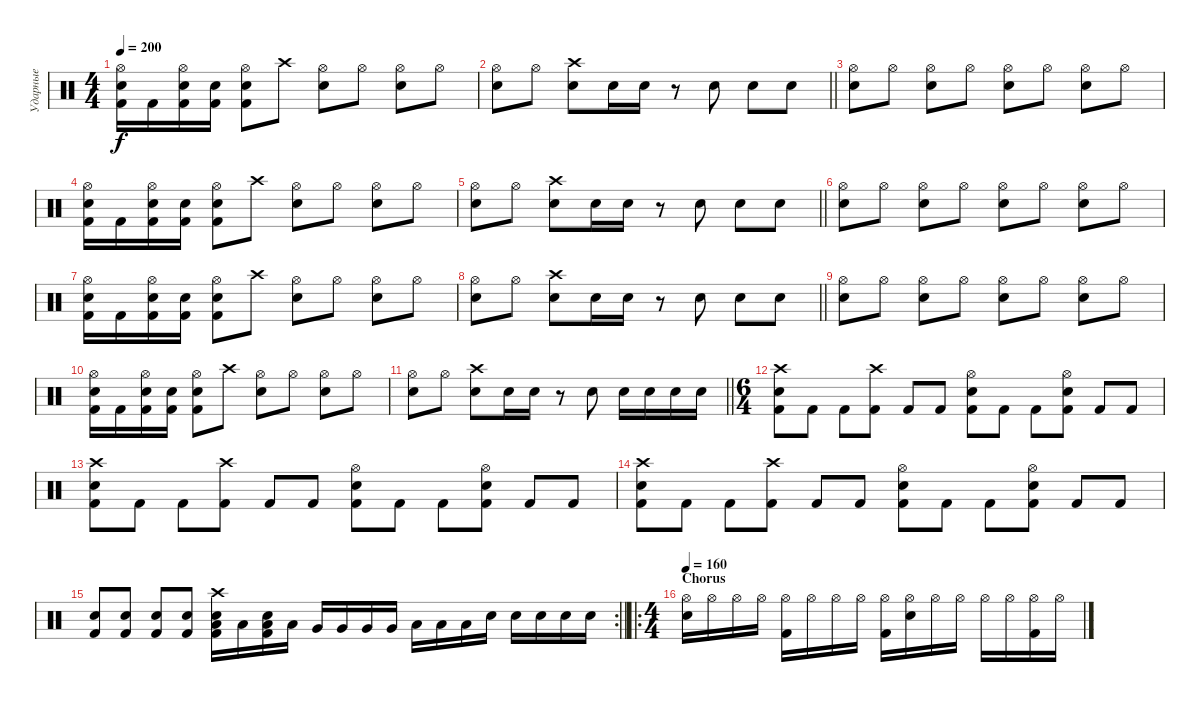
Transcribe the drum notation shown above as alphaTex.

\track ("Ударные" "Ударные") {instrument percussion}
\staff {score}
\articulation defaults
\ts (4 4)
\tempo 200
\clef neutral
\ks c
("Hi-Hat (open)" "Snare (hit) 2" "Kick (hit) 2").16{dy f} "Kick (hit) 2".16 ("Hi-Hat (open)" "Snare (hit) 2" "Kick (hit) 2").16 ("Snare (hit) 2" "Kick (hit) 2").16 ("Hi-Hat (open)" "Snare (hit) 2" "Kick (hit) 2").8 "Crash high (hit)".8 ("Hi-Hat (open)" "Snare (hit) 2").8 "Hi-Hat (open)".8 ("Hi-Hat (open)" "Snare (hit) 2").8 "Hi-Hat (open)".8 |
\barLineRight lightlight
("Hi-Hat (open)" "Snare (hit) 2").8 "Hi-Hat (open)".8 ("Crash high (hit)" "Snare (hit) 2").8 "Snare (hit) 2".16 "Snare (hit) 2".16 r.8 "Snare (hit) 2".8 "Snare (hit) 2".8 "Snare (hit) 2".8 |
("Hi-Hat (open)" "Snare (hit) 2").8 "Hi-Hat (open)".8 ("Hi-Hat (open)" "Snare (hit) 2").8 "Hi-Hat (open)".8 ("Hi-Hat (open)" "Snare (hit) 2").8 "Hi-Hat (open)".8 ("Hi-Hat (open)" "Snare (hit) 2").8 "Hi-Hat (open)".8 |
("Hi-Hat (open)" "Snare (hit) 2" "Kick (hit) 2").16 "Kick (hit) 2".16 ("Hi-Hat (open)" "Snare (hit) 2" "Kick (hit) 2").16 ("Snare (hit) 2" "Kick (hit) 2").16 ("Hi-Hat (open)" "Snare (hit) 2" "Kick (hit) 2").8 "Crash high (hit)".8 ("Hi-Hat (open)" "Snare (hit) 2").8 "Hi-Hat (open)".8 ("Hi-Hat (open)" "Snare (hit) 2").8 "Hi-Hat (open)".8 |
\barLineRight lightlight
("Hi-Hat (open)" "Snare (hit) 2").8 "Hi-Hat (open)".8 ("Crash high (hit)" "Snare (hit) 2").8 "Snare (hit) 2".16 "Snare (hit) 2".16 r.8 "Snare (hit) 2".8 "Snare (hit) 2".8 "Snare (hit) 2".8 |
("Hi-Hat (open)" "Snare (hit) 2").8 "Hi-Hat (open)".8 ("Hi-Hat (open)" "Snare (hit) 2").8 "Hi-Hat (open)".8 ("Hi-Hat (open)" "Snare (hit) 2").8 "Hi-Hat (open)".8 ("Hi-Hat (open)" "Snare (hit) 2").8 "Hi-Hat (open)".8 |
("Hi-Hat (open)" "Snare (hit) 2" "Kick (hit) 2").16 "Kick (hit) 2".16 ("Hi-Hat (open)" "Snare (hit) 2" "Kick (hit) 2").16 ("Snare (hit) 2" "Kick (hit) 2").16 ("Hi-Hat (open)" "Snare (hit) 2" "Kick (hit) 2").8 "Crash high (hit)".8 ("Hi-Hat (open)" "Snare (hit) 2").8 "Hi-Hat (open)".8 ("Hi-Hat (open)" "Snare (hit) 2").8 "Hi-Hat (open)".8 |
\barLineRight lightlight
("Hi-Hat (open)" "Snare (hit) 2").8 "Hi-Hat (open)".8 ("Crash high (hit)" "Snare (hit) 2").8 "Snare (hit) 2".16 "Snare (hit) 2".16 r.8 "Snare (hit) 2".8 "Snare (hit) 2".8 "Snare (hit) 2".8 |
("Hi-Hat (open)" "Snare (hit) 2").8 "Hi-Hat (open)".8 ("Hi-Hat (open)" "Snare (hit) 2").8 "Hi-Hat (open)".8 ("Hi-Hat (open)" "Snare (hit) 2").8 "Hi-Hat (open)".8 ("Hi-Hat (open)" "Snare (hit) 2").8 "Hi-Hat (open)".8 |
("Hi-Hat (open)" "Snare (hit) 2" "Kick (hit) 2").16 "Kick (hit) 2".16 ("Hi-Hat (open)" "Snare (hit) 2" "Kick (hit) 2").16 ("Snare (hit) 2" "Kick (hit) 2").16 ("Hi-Hat (open)" "Snare (hit) 2" "Kick (hit) 2").8 "Crash high (hit)".8 ("Hi-Hat (open)" "Snare (hit) 2").8 "Hi-Hat (open)".8 ("Hi-Hat (open)" "Snare (hit) 2").8 "Hi-Hat (open)".8 |
\barLineRight lightlight
("Hi-Hat (open)" "Snare (hit) 2").8 "Hi-Hat (open)".8 ("Crash high (hit)" "Snare (hit) 2").8 "Snare (hit) 2".16 "Snare (hit) 2".16 r.8 "Snare (hit) 2".8 "Snare (hit) 2".16 "Snare (hit) 2".16 "Snare (hit) 2".16 "Snare (hit) 2".16 |
\ts (6 4)
("Crash high (hit)" "Snare (hit) 2" "Kick (hit) 2").8 "Kick (hit) 2".8 "Kick (hit) 2".8 ("Crash high (hit)" "Kick (hit) 2").8 "Kick (hit) 2".8 "Kick (hit) 2".8 ("Hi-Hat (open)" "Snare (hit) 2" "Kick (hit) 2").8 "Kick (hit) 2".8 "Kick (hit) 2".8 ("Hi-Hat (open)" "Snare (hit) 2" "Kick (hit) 2").8 "Kick (hit) 2".8 "Kick (hit) 2".8 |
("Crash high (hit)" "Snare (hit) 2" "Kick (hit) 2").8 "Kick (hit) 2".8 "Kick (hit) 2".8 ("Crash high (hit)" "Kick (hit) 2").8 "Kick (hit) 2".8 "Kick (hit) 2".8 ("Hi-Hat (open)" "Snare (hit) 2" "Kick (hit) 2").8 "Kick (hit) 2".8 "Kick (hit) 2".8 ("Hi-Hat (open)" "Snare (hit) 2" "Kick (hit) 2").8 "Kick (hit) 2".8 "Kick (hit) 2".8 |
("Crash high (hit)" "Snare (hit) 2" "Kick (hit) 2").8 "Kick (hit) 2".8 "Kick (hit) 2".8 ("Crash high (hit)" "Kick (hit) 2").8 "Kick (hit) 2".8 "Kick (hit) 2".8 ("Hi-Hat (open)" "Snare (hit) 2" "Kick (hit) 2").8 "Kick (hit) 2".8 "Kick (hit) 2".8 ("Hi-Hat (open)" "Snare (hit) 2" "Kick (hit) 2").8 "Kick (hit) 2".8 "Kick (hit) 2".8 |
\rc 2
\barLineRight lightlight
("Snare (hit) 2" "Kick (hit) 2").8 ("Snare (hit) 2" "Kick (hit) 2").8 ("Snare (hit) 2" "Kick (hit) 2").8 ("Snare (hit) 2" "Kick (hit) 2").8 ("Snare (hit) 2" "Crash high (hit)" "Low Tom (hit)" "Kick (hit) 2").16 "Low Tom (hit)".16 ("Snare (hit) 2" "Low Tom (hit)" "Kick (hit) 2").16 "Low Tom (hit)".16 "Very Low Tom (hit)".16 "Very Low Tom (hit)".16 "Very Low Tom (hit)".16 "Very Low Tom (hit)".16 "Low Floor Tom (hit)".16 "Low Floor Tom (hit)".16 "Low Floor Tom (hit)".16 "Snare (hit) 2".16 "Snare (hit) 2".16 "Snare (hit) 2".16 "Snare (hit) 2".16 "Snare (hit) 2".16 |
\ro
\ts (4 4)
\section ("" "Chorus")
\tempo 160
("Hi-Hat (open)" "Snare (hit) 2").16 "Hi-Hat (open)".16 "Hi-Hat (open)".16 "Hi-Hat (open)".16 ("Hi-Hat (open)" "Kick (hit) 2").16 "Hi-Hat (open)".16 "Hi-Hat (open)".16 "Hi-Hat (open)".16 ("Hi-Hat (open)" "Kick (hit) 2").16 ("Hi-Hat (open)" "Snare (hit) 2").16 "Hi-Hat (open)".16 "Hi-Hat (open)".16 "Hi-Hat (open)".16 "Hi-Hat (open)".16 ("Hi-Hat (open)" "Kick (hit) 2").16 "Hi-Hat (open)".16
